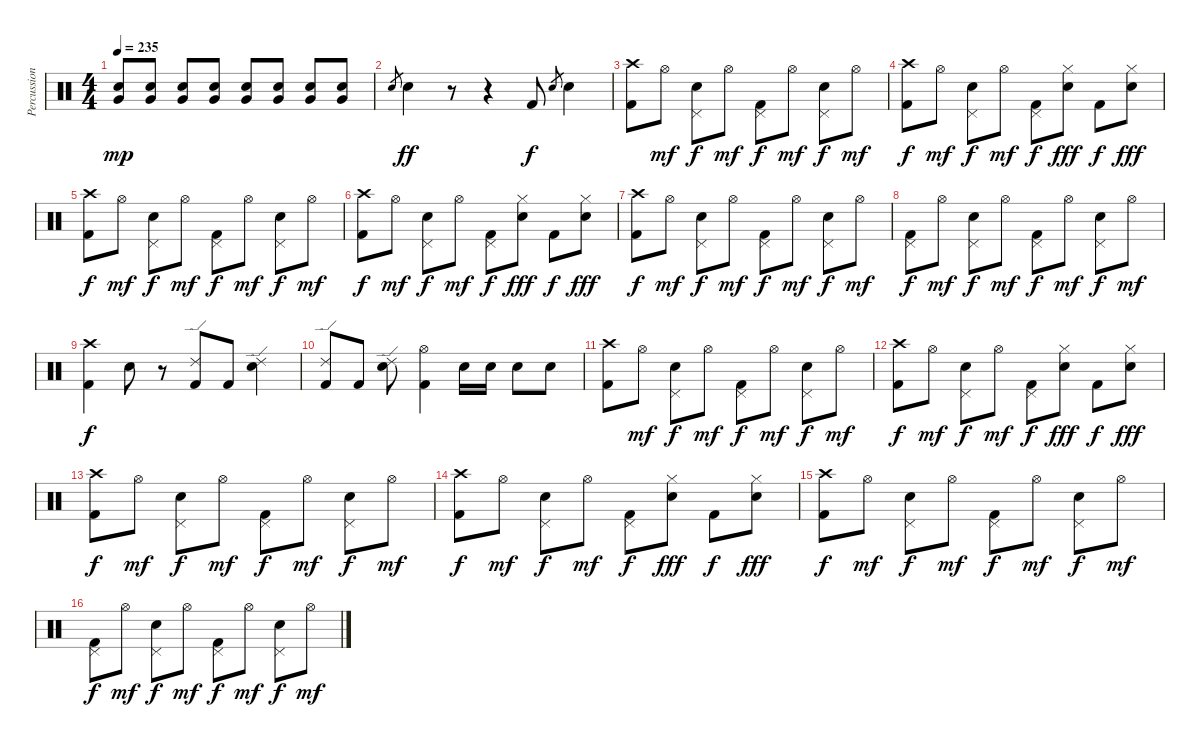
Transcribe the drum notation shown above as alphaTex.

\track ("Percussion" "Percussion") {instrument percussion}
\staff {score}
\articulation defaults
\ts (4 4)
\tempo 235
\clef neutral
\ks c
("Very Low Tom (hit)" "Snare (hit) 2").8{dy mp} ("Very Low Tom (hit)" "Snare (hit) 2").8 ("Very Low Tom (hit)" "Snare (hit) 2").8 ("Very Low Tom (hit)" "Snare (hit) 2").8 ("Very Low Tom (hit)" "Snare (hit) 2").8 ("Very Low Tom (hit)" "Snare (hit) 2").8 ("Very Low Tom (hit)" "Snare (hit) 2").8 ("Very Low Tom (hit)" "Snare (hit) 2").8 |
"Snare (hit) 2".8{gr} "Snare (hit) 2".4{dy ff} r.8 r.4 "Kick (hit) 2".8{dy f} "Snare (hit) 2".8{gr} "Snare (hit) 2".4 |
("Crash high (hit)" "Kick (hit) 2").8 "Hi-Hat (open)".8{dy mf} ("Pedal Hi-Hat (hit)" "Snare (hit) 2").8{dy f} "Hi-Hat (open)".8{dy mf} ("Pedal Hi-Hat (hit)" "Kick (hit) 2").8{dy f} "Hi-Hat (open)".8{dy mf} ("Pedal Hi-Hat (hit)" "Snare (hit) 2").8{dy f} "Hi-Hat (open)".8{dy mf} |
("Crash high (hit)" "Kick (hit) 2").8{dy f} "Hi-Hat (open)".8{dy mf} ("Pedal Hi-Hat (hit)" "Snare (hit) 2").8{dy f} "Hi-Hat (open)".8{dy mf} ("Pedal Hi-Hat (hit)" "Kick (hit) 2").8{dy f} ("Hi-Hat (closed)" "Snare (hit) 2").8{dy fff} "Kick (hit) 2".8{dy f} ("Hi-Hat (closed)" "Snare (hit) 2").8{dy fff} |
("Crash high (hit)" "Kick (hit) 2").8{dy f} "Hi-Hat (open)".8{dy mf} ("Pedal Hi-Hat (hit)" "Snare (hit) 2").8{dy f} "Hi-Hat (open)".8{dy mf} ("Pedal Hi-Hat (hit)" "Kick (hit) 2").8{dy f} "Hi-Hat (open)".8{dy mf} ("Pedal Hi-Hat (hit)" "Snare (hit) 2").8{dy f} "Hi-Hat (open)".8{dy mf} |
("Crash high (hit)" "Kick (hit) 2").8{dy f} "Hi-Hat (open)".8{dy mf} ("Pedal Hi-Hat (hit)" "Snare (hit) 2").8{dy f} "Hi-Hat (open)".8{dy mf} ("Pedal Hi-Hat (hit)" "Kick (hit) 2").8{dy f} ("Hi-Hat (closed)" "Snare (hit) 2").8{dy fff} "Kick (hit) 2".8{dy f} ("Hi-Hat (closed)" "Snare (hit) 2").8{dy fff} |
("Crash high (hit)" "Kick (hit) 2").8{dy f} "Hi-Hat (open)".8{dy mf} ("Pedal Hi-Hat (hit)" "Snare (hit) 2").8{dy f} "Hi-Hat (open)".8{dy mf} ("Pedal Hi-Hat (hit)" "Kick (hit) 2").8{dy f} "Hi-Hat (open)".8{dy mf} ("Pedal Hi-Hat (hit)" "Snare (hit) 2").8{dy f} "Hi-Hat (open)".8{dy mf} |
("Pedal Hi-Hat (hit)" "Kick (hit) 2").8{dy f} "Hi-Hat (open)".8{dy mf} ("Pedal Hi-Hat (hit)" "Snare (hit) 2").8{dy f} "Hi-Hat (open)".8{dy mf} ("Pedal Hi-Hat (hit)" "Kick (hit) 2").8{dy f} "Hi-Hat (open)".8{dy mf} ("Pedal Hi-Hat (hit)" "Snare (hit) 2").8{dy f} "Hi-Hat (open)".8{dy mf} |
("Crash high (hit)" "Kick (hit) 2").4{dy f} "Electric Snare (hit)".8 r.8 ("Ride (edge) 2" "Kick (hit) 2").8 "Kick (hit) 2".8 ("Ride (edge) 2" "Electric Snare (hit)").4 |
("Ride (edge) 2" "Kick (hit) 2").8 "Kick (hit) 2".8 ("Ride (edge) 2" "Electric Snare (hit)").8 ("Hi-Hat (open)" "Kick (hit) 2").4 "Snare (hit) 2".16 "Snare (hit) 2".16 "Snare (hit) 2".8 "Snare (hit) 2".8 |
("Crash high (hit)" "Kick (hit) 2").8 "Hi-Hat (open)".8{dy mf} ("Pedal Hi-Hat (hit)" "Snare (hit) 2").8{dy f} "Hi-Hat (open)".8{dy mf} ("Pedal Hi-Hat (hit)" "Kick (hit) 2").8{dy f} "Hi-Hat (open)".8{dy mf} ("Pedal Hi-Hat (hit)" "Snare (hit) 2").8{dy f} "Hi-Hat (open)".8{dy mf} |
("Crash high (hit)" "Kick (hit) 2").8{dy f} "Hi-Hat (open)".8{dy mf} ("Pedal Hi-Hat (hit)" "Snare (hit) 2").8{dy f} "Hi-Hat (open)".8{dy mf} ("Pedal Hi-Hat (hit)" "Kick (hit) 2").8{dy f} ("Hi-Hat (closed)" "Snare (hit) 2").8{dy fff} "Kick (hit) 2".8{dy f} ("Hi-Hat (closed)" "Snare (hit) 2").8{dy fff} |
("Crash high (hit)" "Kick (hit) 2").8{dy f} "Hi-Hat (open)".8{dy mf} ("Pedal Hi-Hat (hit)" "Snare (hit) 2").8{dy f} "Hi-Hat (open)".8{dy mf} ("Pedal Hi-Hat (hit)" "Kick (hit) 2").8{dy f} "Hi-Hat (open)".8{dy mf} ("Pedal Hi-Hat (hit)" "Snare (hit) 2").8{dy f} "Hi-Hat (open)".8{dy mf} |
("Crash high (hit)" "Kick (hit) 2").8{dy f} "Hi-Hat (open)".8{dy mf} ("Pedal Hi-Hat (hit)" "Snare (hit) 2").8{dy f} "Hi-Hat (open)".8{dy mf} ("Pedal Hi-Hat (hit)" "Kick (hit) 2").8{dy f} ("Hi-Hat (closed)" "Snare (hit) 2").8{dy fff} "Kick (hit) 2".8{dy f} ("Hi-Hat (closed)" "Snare (hit) 2").8{dy fff} |
("Crash high (hit)" "Kick (hit) 2").8{dy f} "Hi-Hat (open)".8{dy mf} ("Pedal Hi-Hat (hit)" "Snare (hit) 2").8{dy f} "Hi-Hat (open)".8{dy mf} ("Pedal Hi-Hat (hit)" "Kick (hit) 2").8{dy f} "Hi-Hat (open)".8{dy mf} ("Pedal Hi-Hat (hit)" "Snare (hit) 2").8{dy f} "Hi-Hat (open)".8{dy mf} |
("Pedal Hi-Hat (hit)" "Kick (hit) 2").8{dy f} "Hi-Hat (open)".8{dy mf} ("Pedal Hi-Hat (hit)" "Snare (hit) 2").8{dy f} "Hi-Hat (open)".8{dy mf} ("Pedal Hi-Hat (hit)" "Kick (hit) 2").8{dy f} "Hi-Hat (open)".8{dy mf} ("Pedal Hi-Hat (hit)" "Snare (hit) 2").8{dy f} "Hi-Hat (open)".8{dy mf}
